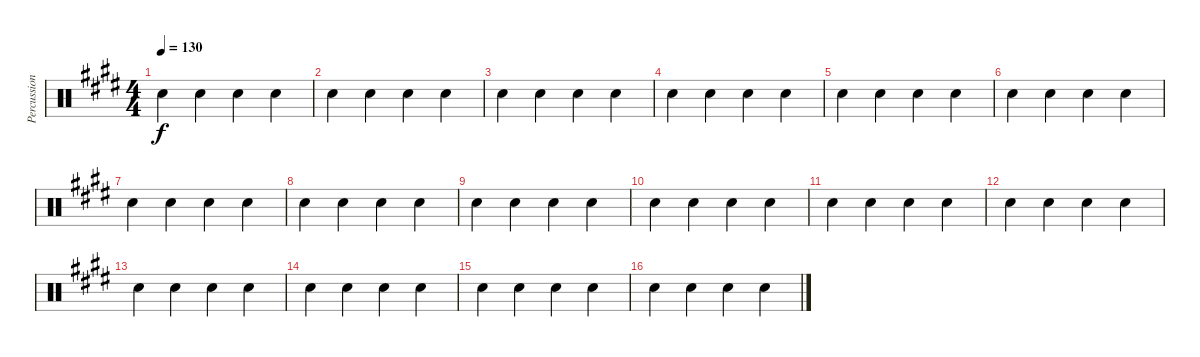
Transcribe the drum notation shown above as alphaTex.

\track ("Percussion" "Percussion") {instrument percussion}
\staff {score}
\articulation defaults
\ts (4 4)
\tempo 130
\clef neutral
\ks e "Snare (hit) 2".4{dy f} "Snare (hit) 2".4 "Snare (hit) 2".4 "Snare (hit) 2".4
|
"Snare (hit) 2".4 "Snare (hit) 2".4 "Snare (hit) 2".4 "Snare (hit) 2".4 |
"Snare (hit) 2".4 "Snare (hit) 2".4 "Snare (hit) 2".4 "Snare (hit) 2".4 |
"Snare (hit) 2".4 "Snare (hit) 2".4 "Snare (hit) 2".4 "Snare (hit) 2".4 |
"Snare (hit) 2".4 "Snare (hit) 2".4 "Snare (hit) 2".4 "Snare (hit) 2".4 |
"Snare (hit) 2".4 "Snare (hit) 2".4 "Snare (hit) 2".4 "Snare (hit) 2".4 |
"Snare (hit) 2".4 "Snare (hit) 2".4 "Snare (hit) 2".4 "Snare (hit) 2".4 |
"Snare (hit) 2".4 "Snare (hit) 2".4 "Snare (hit) 2".4 "Snare (hit) 2".4 |
"Snare (hit) 2".4 "Snare (hit) 2".4 "Snare (hit) 2".4 "Snare (hit) 2".4 |
"Snare (hit) 2".4 "Snare (hit) 2".4 "Snare (hit) 2".4 "Snare (hit) 2".4 |
"Snare (hit) 2".4 "Snare (hit) 2".4 "Snare (hit) 2".4 "Snare (hit) 2".4 |
"Snare (hit) 2".4 "Snare (hit) 2".4 "Snare (hit) 2".4 "Snare (hit) 2".4 |
"Snare (hit) 2".4 "Snare (hit) 2".4 "Snare (hit) 2".4 "Snare (hit) 2".4 |
"Snare (hit) 2".4 "Snare (hit) 2".4 "Snare (hit) 2".4 "Snare (hit) 2".4 |
"Snare (hit) 2".4 "Snare (hit) 2".4 "Snare (hit) 2".4 "Snare (hit) 2".4 |
"Snare (hit) 2".4 "Snare (hit) 2".4 "Snare (hit) 2".4 "Snare (hit) 2".4
